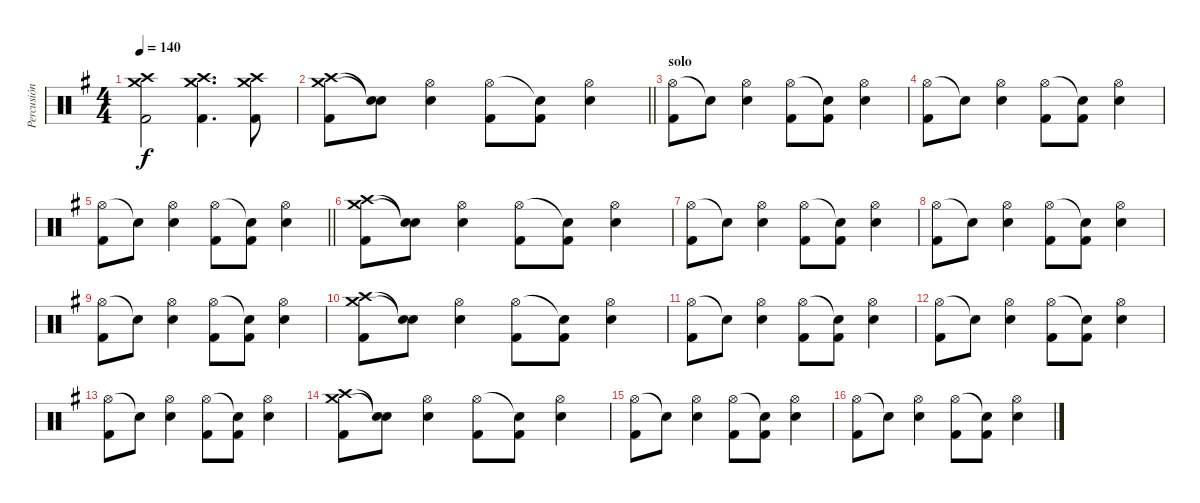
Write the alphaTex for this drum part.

\track ("Percusión" "Percusión") {instrument percussion}
\staff {score}
\articulation defaults
\ts (4 4)
\tempo 140
\clef neutral
\ks g
("Crash high (hit)" "Crash medium (hit)" "Kick (hit) 2").2{dy f} ("Crash high (hit)" "Crash medium (hit)" "Kick (hit) 2").4{d} ("Crash high (hit)" "Crash medium (hit)" "Kick (hit) 2").8 |
\barLineRight lightlight
("Crash medium (hit)" "Crash high (hit)" "Kick (hit) 2").8 ("Snare (hit)"{t} "Snare (hit)"{t}).8 ("Hi-Hat (open)" "Electric Snare (hit)").4 ("Hi-Hat (open)" "Kick (hit) 2").8 ("Snare (hit)"{t} "Kick (hit) 2").8 ("Hi-Hat (open)" "Electric Snare (hit)").4 |
\section ("" "solo")
("Hi-Hat (open)" "Kick (hit) 2").8 "Snare (hit)"{t}.8 ("Hi-Hat (open)" "Electric Snare (hit)").4 ("Hi-Hat (open)" "Kick (hit) 2").8 ("Snare (hit)"{t} "Kick (hit) 2").8 ("Hi-Hat (open)" "Electric Snare (hit)").4 |
("Hi-Hat (open)" "Kick (hit) 2").8 "Snare (hit)"{t}.8 ("Hi-Hat (open)" "Electric Snare (hit)").4 ("Hi-Hat (open)" "Kick (hit) 2").8 ("Snare (hit)"{t} "Kick (hit) 2").8 ("Hi-Hat (open)" "Electric Snare (hit)").4 |
\barLineRight lightlight
("Hi-Hat (open)" "Kick (hit) 2").8 "Snare (hit)"{t}.8 ("Hi-Hat (open)" "Electric Snare (hit)").4 ("Hi-Hat (open)" "Kick (hit) 2").8 ("Snare (hit)"{t} "Kick (hit) 2").8 ("Hi-Hat (open)" "Electric Snare (hit)").4 |
("Crash medium (hit)" "Crash high (hit)" "Kick (hit) 2").8 ("Snare (hit)"{t} "Snare (hit)"{t}).8 ("Hi-Hat (open)" "Electric Snare (hit)").4 ("Hi-Hat (open)" "Kick (hit) 2").8 ("Snare (hit)"{t} "Kick (hit) 2").8 ("Hi-Hat (open)" "Electric Snare (hit)").4 |
("Hi-Hat (open)" "Kick (hit) 2").8 "Snare (hit)"{t}.8 ("Hi-Hat (open)" "Electric Snare (hit)").4 ("Hi-Hat (open)" "Kick (hit) 2").8 ("Snare (hit)"{t} "Kick (hit) 2").8 ("Hi-Hat (open)" "Electric Snare (hit)").4 |
("Hi-Hat (open)" "Kick (hit) 2").8 "Snare (hit)"{t}.8 ("Hi-Hat (open)" "Electric Snare (hit)").4 ("Hi-Hat (open)" "Kick (hit) 2").8 ("Snare (hit)"{t} "Kick (hit) 2").8 ("Hi-Hat (open)" "Electric Snare (hit)").4 |
("Hi-Hat (open)" "Kick (hit) 2").8 "Snare (hit)"{t}.8 ("Hi-Hat (open)" "Electric Snare (hit)").4 ("Hi-Hat (open)" "Kick (hit) 2").8 ("Snare (hit)"{t} "Kick (hit) 2").8 ("Hi-Hat (open)" "Electric Snare (hit)").4 |
("Crash medium (hit)" "Crash high (hit)" "Kick (hit) 2").8 ("Snare (hit)"{t} "Snare (hit)"{t}).8 ("Hi-Hat (open)" "Electric Snare (hit)").4 ("Hi-Hat (open)" "Kick (hit) 2").8 ("Snare (hit)"{t} "Kick (hit) 2").8 ("Hi-Hat (open)" "Electric Snare (hit)").4 |
("Hi-Hat (open)" "Kick (hit) 2").8 "Snare (hit)"{t}.8 ("Hi-Hat (open)" "Electric Snare (hit)").4 ("Hi-Hat (open)" "Kick (hit) 2").8 ("Snare (hit)"{t} "Kick (hit) 2").8 ("Hi-Hat (open)" "Electric Snare (hit)").4 |
("Hi-Hat (open)" "Kick (hit) 2").8 "Snare (hit)"{t}.8 ("Hi-Hat (open)" "Electric Snare (hit)").4 ("Hi-Hat (open)" "Kick (hit) 2").8 ("Snare (hit)"{t} "Kick (hit) 2").8 ("Hi-Hat (open)" "Electric Snare (hit)").4 |
("Hi-Hat (open)" "Kick (hit) 2").8 "Snare (hit)"{t}.8 ("Hi-Hat (open)" "Electric Snare (hit)").4 ("Hi-Hat (open)" "Kick (hit) 2").8 ("Snare (hit)"{t} "Kick (hit) 2").8 ("Hi-Hat (open)" "Electric Snare (hit)").4 |
("Crash medium (hit)" "Crash high (hit)" "Kick (hit) 2").8 ("Snare (hit)"{t} "Snare (hit)"{t}).8 ("Hi-Hat (open)" "Electric Snare (hit)").4 ("Hi-Hat (open)" "Kick (hit) 2").8 ("Snare (hit)"{t} "Kick (hit) 2").8 ("Hi-Hat (open)" "Electric Snare (hit)").4 |
("Hi-Hat (open)" "Kick (hit) 2").8 "Snare (hit)"{t}.8 ("Hi-Hat (open)" "Electric Snare (hit)").4 ("Hi-Hat (open)" "Kick (hit) 2").8 ("Snare (hit)"{t} "Kick (hit) 2").8 ("Hi-Hat (open)" "Electric Snare (hit)").4 |
("Hi-Hat (open)" "Kick (hit) 2").8 "Snare (hit)"{t}.8 ("Hi-Hat (open)" "Electric Snare (hit)").4 ("Hi-Hat (open)" "Kick (hit) 2").8 ("Snare (hit)"{t} "Kick (hit) 2").8 ("Hi-Hat (open)" "Electric Snare (hit)").4
